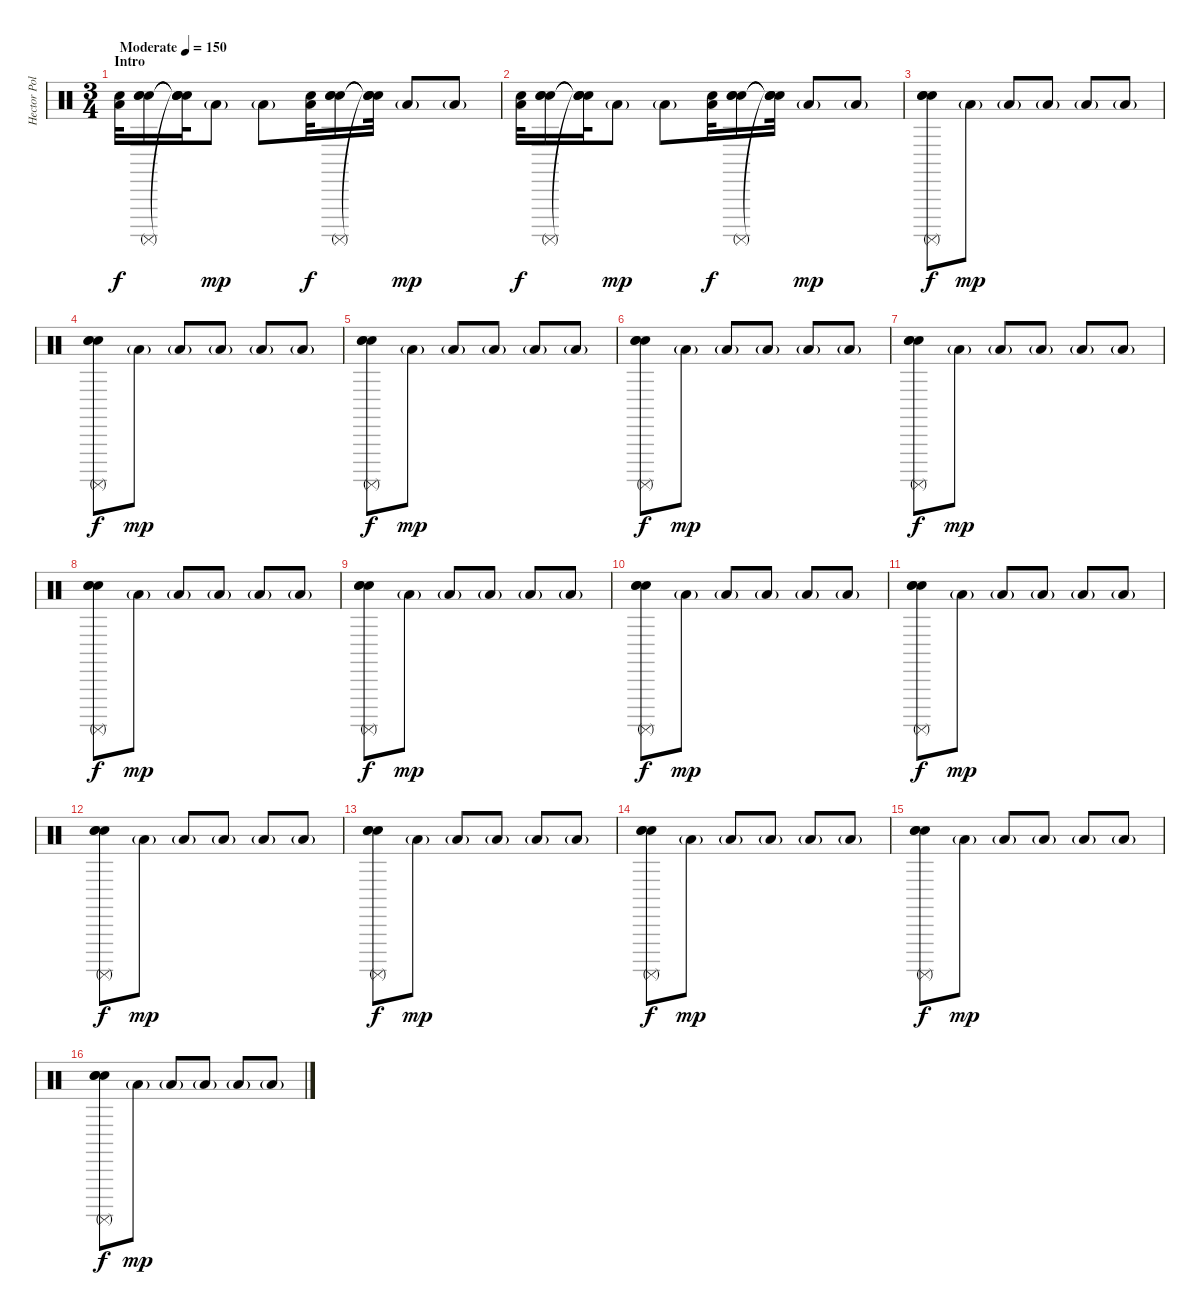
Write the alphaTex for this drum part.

\track ("Hector Polo" "Hector Pol") {instrument percussion}
\staff {score}
\articulation defaults
\ts (3 4)
\section ("" "Intro")
\tempo (150 "Moderate")
\clef neutral
\ks c
("Low Floor Tom (hit)" "Electric Snare (hit)").32{dy f} ("Surdo (mute)" "Snare (hit) 2" "Electric Snare (hit)" "Hand Clap (hit)").16 ("Snare (hit)"{t} "Snare (hit)"{t} "Snare (hit)"{t} "Snare (hit)"{t}).32 "Low Floor Tom (hit)"{g}.8{dy mp} "Low Floor Tom (hit)"{g}.8 ("Low Floor Tom (hit)" "Electric Snare (hit)").32{dy f} ("Surdo (mute)" "Snare (hit) 2" "Electric Snare (hit)" "Hand Clap (hit)").16 ("Snare (hit)"{t} "Snare (hit)"{t} "Snare (hit)"{t} "Snare (hit)"{t}).32 "Low Floor Tom (hit)"{g}.8{dy mp} "Low Floor Tom (hit)"{g}.8 |
("Low Floor Tom (hit)" "Electric Snare (hit)").32{dy f volume 8} ("Surdo (mute)" "Snare (hit) 2" "Electric Snare (hit)" "Hand Clap (hit)").16 ("Snare (hit)"{t} "Snare (hit)"{t} "Snare (hit)"{t} "Snare (hit)"{t}).32 "Low Floor Tom (hit)"{g}.8{dy mp} "Low Floor Tom (hit)"{g}.8 ("Low Floor Tom (hit)" "Electric Snare (hit)").32{dy f} ("Surdo (mute)" "Snare (hit) 2" "Electric Snare (hit)" "Hand Clap (hit)").16 ("Snare (hit)"{t} "Snare (hit)"{t} "Snare (hit)"{t} "Snare (hit)"{t}).32 "Low Floor Tom (hit)"{g}.8{dy mp} "Low Floor Tom (hit)"{g}.8 |
("Surdo (mute)" "Snare (hit) 2" "Electric Snare (hit)" "Hand Clap (hit)").8{dy f} "Low Floor Tom (hit)"{g}.8{dy mp} "Low Floor Tom (hit)"{g}.8 "Low Floor Tom (hit)"{g}.8 "Low Floor Tom (hit)"{g}.8 "Low Floor Tom (hit)"{g}.8 |
("Surdo (mute)" "Snare (hit) 2" "Electric Snare (hit)" "Hand Clap (hit)").8{dy f} "Low Floor Tom (hit)"{g}.8{dy mp} "Low Floor Tom (hit)"{g}.8 "Low Floor Tom (hit)"{g}.8 "Low Floor Tom (hit)"{g}.8 "Low Floor Tom (hit)"{g}.8 |
("Surdo (mute)" "Snare (hit) 2" "Electric Snare (hit)" "Hand Clap (hit)").8{dy f} "Low Floor Tom (hit)"{g}.8{dy mp} "Low Floor Tom (hit)"{g}.8 "Low Floor Tom (hit)"{g}.8 "Low Floor Tom (hit)"{g}.8 "Low Floor Tom (hit)"{g}.8 |
("Surdo (mute)" "Snare (hit) 2" "Electric Snare (hit)" "Hand Clap (hit)").8{dy f} "Low Floor Tom (hit)"{g}.8{dy mp} "Low Floor Tom (hit)"{g}.8 "Low Floor Tom (hit)"{g}.8 "Low Floor Tom (hit)"{g}.8 "Low Floor Tom (hit)"{g}.8 |
("Surdo (mute)" "Snare (hit) 2" "Electric Snare (hit)" "Hand Clap (hit)").8{dy f} "Low Floor Tom (hit)"{g}.8{dy mp} "Low Floor Tom (hit)"{g}.8 "Low Floor Tom (hit)"{g}.8 "Low Floor Tom (hit)"{g}.8 "Low Floor Tom (hit)"{g}.8 |
("Surdo (mute)" "Snare (hit) 2" "Electric Snare (hit)" "Hand Clap (hit)").8{dy f} "Low Floor Tom (hit)"{g}.8{dy mp} "Low Floor Tom (hit)"{g}.8 "Low Floor Tom (hit)"{g}.8 "Low Floor Tom (hit)"{g}.8 "Low Floor Tom (hit)"{g}.8 |
("Surdo (mute)" "Snare (hit) 2" "Electric Snare (hit)" "Hand Clap (hit)").8{dy f} "Low Floor Tom (hit)"{g}.8{dy mp} "Low Floor Tom (hit)"{g}.8 "Low Floor Tom (hit)"{g}.8 "Low Floor Tom (hit)"{g}.8 "Low Floor Tom (hit)"{g}.8 |
("Surdo (mute)" "Snare (hit) 2" "Electric Snare (hit)" "Hand Clap (hit)").8{dy f} "Low Floor Tom (hit)"{g}.8{dy mp} "Low Floor Tom (hit)"{g}.8 "Low Floor Tom (hit)"{g}.8 "Low Floor Tom (hit)"{g}.8 "Low Floor Tom (hit)"{g}.8 |
("Surdo (mute)" "Snare (hit) 2" "Electric Snare (hit)" "Hand Clap (hit)").8{dy f} "Low Floor Tom (hit)"{g}.8{dy mp} "Low Floor Tom (hit)"{g}.8 "Low Floor Tom (hit)"{g}.8 "Low Floor Tom (hit)"{g}.8 "Low Floor Tom (hit)"{g}.8 |
("Surdo (mute)" "Snare (hit) 2" "Electric Snare (hit)" "Hand Clap (hit)").8{dy f} "Low Floor Tom (hit)"{g}.8{dy mp} "Low Floor Tom (hit)"{g}.8 "Low Floor Tom (hit)"{g}.8 "Low Floor Tom (hit)"{g}.8 "Low Floor Tom (hit)"{g}.8 |
("Surdo (mute)" "Snare (hit) 2" "Electric Snare (hit)" "Hand Clap (hit)").8{dy f} "Low Floor Tom (hit)"{g}.8{dy mp} "Low Floor Tom (hit)"{g}.8 "Low Floor Tom (hit)"{g}.8 "Low Floor Tom (hit)"{g}.8 "Low Floor Tom (hit)"{g}.8 |
("Surdo (mute)" "Snare (hit) 2" "Electric Snare (hit)" "Hand Clap (hit)").8{dy f} "Low Floor Tom (hit)"{g}.8{dy mp} "Low Floor Tom (hit)"{g}.8 "Low Floor Tom (hit)"{g}.8 "Low Floor Tom (hit)"{g}.8 "Low Floor Tom (hit)"{g}.8 |
("Surdo (mute)" "Snare (hit) 2" "Electric Snare (hit)" "Hand Clap (hit)").8{dy f} "Low Floor Tom (hit)"{g}.8{dy mp} "Low Floor Tom (hit)"{g}.8 "Low Floor Tom (hit)"{g}.8 "Low Floor Tom (hit)"{g}.8 "Low Floor Tom (hit)"{g}.8 |
("Surdo (mute)" "Snare (hit) 2" "Electric Snare (hit)" "Hand Clap (hit)").8{dy f} "Low Floor Tom (hit)"{g}.8{dy mp} "Low Floor Tom (hit)"{g}.8 "Low Floor Tom (hit)"{g}.8 "Low Floor Tom (hit)"{g}.8 "Low Floor Tom (hit)"{g}.8
